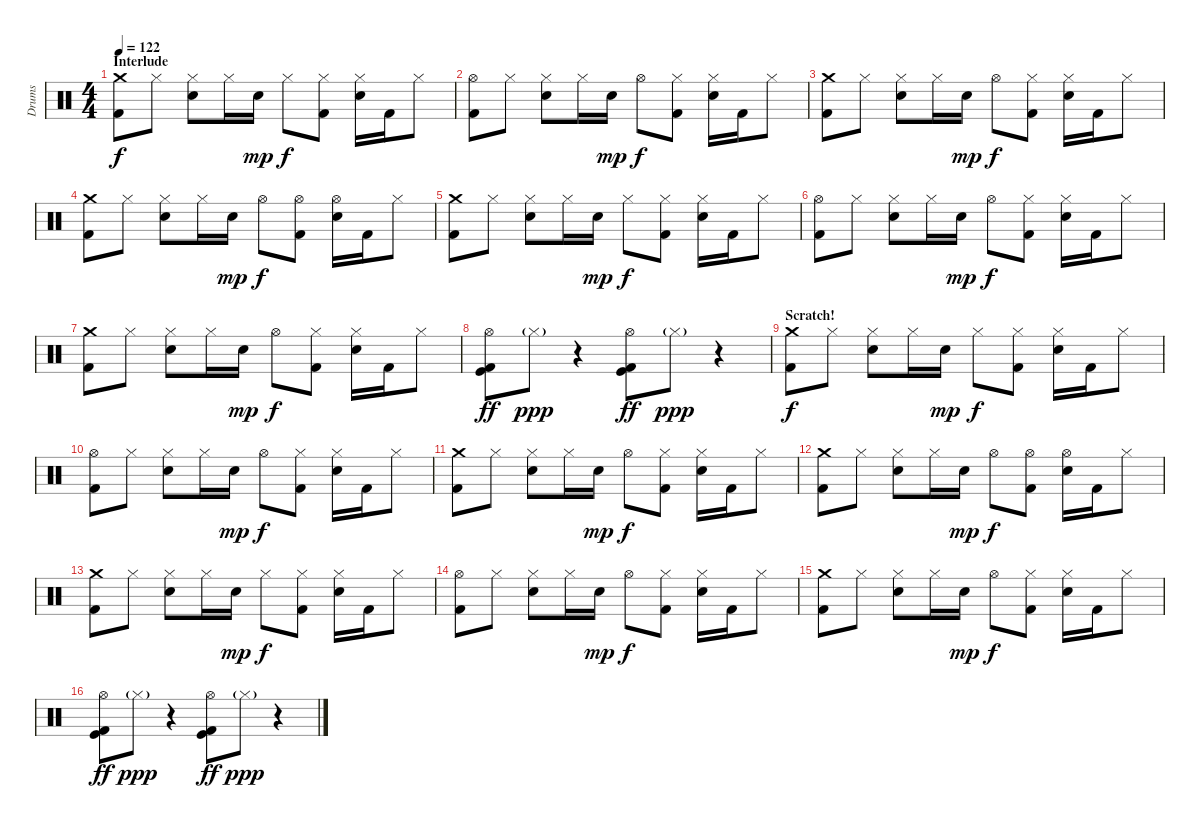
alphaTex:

\track ("Drums" "Drums") {instrument percussion}
\staff {score}
\articulation defaults
\ts (4 4)
\section ("" "Interlude")
\tempo 122
\clef neutral
\ks c
("Crash medium (hit)" "Kick (hit) 2").8{dy f} "Hi-Hat (closed)".8 ("Hi-Hat (closed)" "Electric Snare (hit)").8 "Hi-Hat (closed)".16 "Electric Snare (hit)".16{dy mp} "Hi-Hat (closed)".8{dy f} ("Hi-Hat (closed)" "Kick (hit) 2").8 ("Hi-Hat (closed)" "Electric Snare (hit)").16 "Kick (hit) 2".16 "Hi-Hat (closed)".8 |
("Hi-Hat (open)" "Kick (hit) 2").8 "Hi-Hat (closed)".8 ("Hi-Hat (closed)" "Electric Snare (hit)").8 "Hi-Hat (closed)".16 "Electric Snare (hit)".16{dy mp} "Hi-Hat (open)".8{dy f} ("Hi-Hat (closed)" "Kick (hit) 2").8 ("Hi-Hat (closed)" "Electric Snare (hit)").16 "Kick (hit) 2".16 "Hi-Hat (closed)".8 |
("Crash medium (hit)" "Kick (hit) 2").8 "Hi-Hat (closed)".8 ("Hi-Hat (closed)" "Electric Snare (hit)").8 "Hi-Hat (closed)".16 "Electric Snare (hit)".16{dy mp} "Hi-Hat (open)".8{dy f} ("Hi-Hat (closed)" "Kick (hit) 2").8 ("Hi-Hat (closed)" "Electric Snare (hit)").16 "Kick (hit) 2".16 "Hi-Hat (closed)".8 |
("Crash medium (hit)" "Kick (hit) 2").8 "Hi-Hat (closed)".8 ("Hi-Hat (closed)" "Electric Snare (hit)").8 "Hi-Hat (closed)".16 "Electric Snare (hit)".16{dy mp} "Hi-Hat (open)".8{dy f} ("Hi-Hat (open)" "Kick (hit) 2").8 ("Hi-Hat (open)" "Electric Snare (hit)").16 "Kick (hit) 2".16 "Hi-Hat (closed)".8 |
("Crash medium (hit)" "Kick (hit) 2").8 "Hi-Hat (closed)".8 ("Hi-Hat (closed)" "Electric Snare (hit)").8 "Hi-Hat (closed)".16 "Electric Snare (hit)".16{dy mp} "Hi-Hat (closed)".8{dy f} ("Hi-Hat (closed)" "Kick (hit) 2").8 ("Hi-Hat (closed)" "Electric Snare (hit)").16 "Kick (hit) 2".16 "Hi-Hat (closed)".8 |
("Hi-Hat (open)" "Kick (hit) 2").8 "Hi-Hat (closed)".8 ("Hi-Hat (closed)" "Electric Snare (hit)").8 "Hi-Hat (closed)".16 "Electric Snare (hit)".16{dy mp} "Hi-Hat (open)".8{dy f} ("Hi-Hat (closed)" "Kick (hit) 2").8 ("Hi-Hat (closed)" "Electric Snare (hit)").16 "Kick (hit) 2".16 "Hi-Hat (closed)".8 |
("Crash medium (hit)" "Kick (hit) 2").8 "Hi-Hat (closed)".8 ("Hi-Hat (closed)" "Electric Snare (hit)").8 "Hi-Hat (closed)".16 "Electric Snare (hit)".16{dy mp} "Hi-Hat (open)".8{dy f} ("Hi-Hat (closed)" "Kick (hit) 2").8 ("Hi-Hat (closed)" "Electric Snare (hit)").16 "Kick (hit) 2".16 "Hi-Hat (closed)".8 |
("Hi-Hat (open)" "Kick (hit)" "Kick (hit) 2").8{dy ff} "Hi-Hat (closed)"{g}.8{dy ppp} r.4 ("Hi-Hat (open)" "Kick (hit)" "Kick (hit) 2").8{dy ff} "Hi-Hat (closed)"{g}.8{dy ppp} r.4 |
\section ("" "Scratch!")
("Crash medium (hit)" "Kick (hit) 2").8{dy f} "Hi-Hat (closed)".8 ("Hi-Hat (closed)" "Electric Snare (hit)").8 "Hi-Hat (closed)".16 "Electric Snare (hit)".16{dy mp} "Hi-Hat (closed)".8{dy f} ("Hi-Hat (closed)" "Kick (hit) 2").8 ("Hi-Hat (closed)" "Electric Snare (hit)").16 "Kick (hit) 2".16 "Hi-Hat (closed)".8 |
("Hi-Hat (open)" "Kick (hit) 2").8 "Hi-Hat (closed)".8 ("Hi-Hat (closed)" "Electric Snare (hit)").8 "Hi-Hat (closed)".16 "Electric Snare (hit)".16{dy mp} "Hi-Hat (open)".8{dy f} ("Hi-Hat (closed)" "Kick (hit) 2").8 ("Hi-Hat (closed)" "Electric Snare (hit)").16 "Kick (hit) 2".16 "Hi-Hat (closed)".8 |
("Crash medium (hit)" "Kick (hit) 2").8 "Hi-Hat (closed)".8 ("Hi-Hat (closed)" "Electric Snare (hit)").8 "Hi-Hat (closed)".16 "Electric Snare (hit)".16{dy mp} "Hi-Hat (open)".8{dy f} ("Hi-Hat (closed)" "Kick (hit) 2").8 ("Hi-Hat (closed)" "Electric Snare (hit)").16 "Kick (hit) 2".16 "Hi-Hat (closed)".8 |
("Crash medium (hit)" "Kick (hit) 2").8 "Hi-Hat (closed)".8 ("Hi-Hat (closed)" "Electric Snare (hit)").8 "Hi-Hat (closed)".16 "Electric Snare (hit)".16{dy mp} "Hi-Hat (open)".8{dy f} ("Hi-Hat (open)" "Kick (hit) 2").8 ("Hi-Hat (open)" "Electric Snare (hit)").16 "Kick (hit) 2".16 "Hi-Hat (closed)".8 |
("Crash medium (hit)" "Kick (hit) 2").8 "Hi-Hat (closed)".8 ("Hi-Hat (closed)" "Electric Snare (hit)").8 "Hi-Hat (closed)".16 "Electric Snare (hit)".16{dy mp} "Hi-Hat (closed)".8{dy f} ("Hi-Hat (closed)" "Kick (hit) 2").8 ("Hi-Hat (closed)" "Electric Snare (hit)").16 "Kick (hit) 2".16 "Hi-Hat (closed)".8 |
("Hi-Hat (open)" "Kick (hit) 2").8 "Hi-Hat (closed)".8 ("Hi-Hat (closed)" "Electric Snare (hit)").8 "Hi-Hat (closed)".16 "Electric Snare (hit)".16{dy mp} "Hi-Hat (open)".8{dy f} ("Hi-Hat (closed)" "Kick (hit) 2").8 ("Hi-Hat (closed)" "Electric Snare (hit)").16 "Kick (hit) 2".16 "Hi-Hat (closed)".8 |
("Crash medium (hit)" "Kick (hit) 2").8 "Hi-Hat (closed)".8 ("Hi-Hat (closed)" "Electric Snare (hit)").8 "Hi-Hat (closed)".16 "Electric Snare (hit)".16{dy mp} "Hi-Hat (open)".8{dy f} ("Hi-Hat (closed)" "Kick (hit) 2").8 ("Hi-Hat (closed)" "Electric Snare (hit)").16 "Kick (hit) 2".16 "Hi-Hat (closed)".8 |
("Hi-Hat (open)" "Kick (hit)" "Kick (hit) 2").8{dy ff} "Hi-Hat (closed)"{g}.8{dy ppp} r.4 ("Hi-Hat (open)" "Kick (hit)" "Kick (hit) 2").8{dy ff} "Hi-Hat (closed)"{g}.8{dy ppp} r.4
